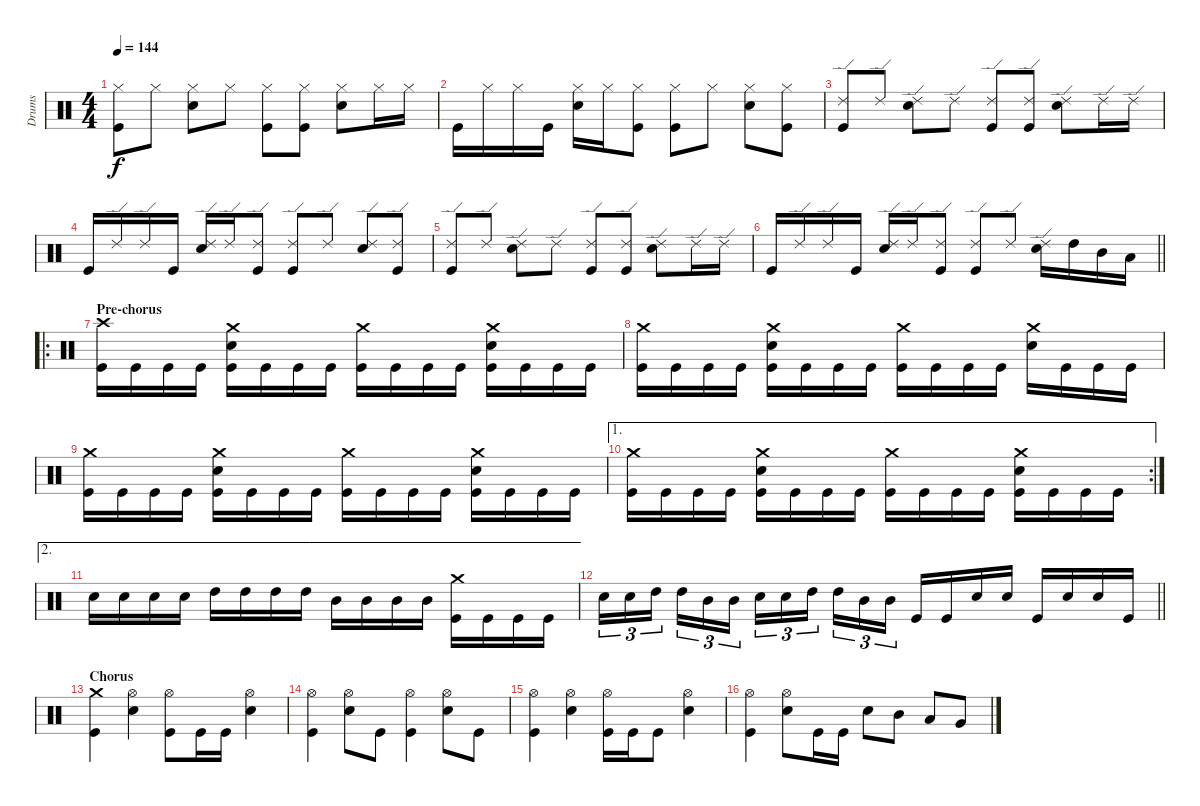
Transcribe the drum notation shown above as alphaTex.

\track ("Drums" "Drums") {instrument percussion}
\staff {score}
\articulation defaults
\ts (4 4)
\tempo 144
\clef neutral
\ks c
("Hi-Hat (closed)" "Kick (hit)").8{dy f} "Hi-Hat (closed)".8 ("Hi-Hat (closed)" "Snare (hit) 2").8 "Hi-Hat (closed)".8 ("Hi-Hat (closed)" "Kick (hit)").8 ("Hi-Hat (closed)" "Kick (hit)").8 ("Hi-Hat (closed)" "Snare (hit) 2").8 "Hi-Hat (closed)".16 "Hi-Hat (closed)".16 |
"Kick (hit)".16 "Hi-Hat (closed)".16 "Hi-Hat (closed)".16 "Kick (hit)".16 ("Hi-Hat (closed)" "Snare (hit) 2").16 "Hi-Hat (closed)".16 ("Hi-Hat (closed)" "Kick (hit)").8 ("Hi-Hat (closed)" "Kick (hit)").8 "Hi-Hat (closed)".8 ("Hi-Hat (closed)" "Snare (hit) 2").8 ("Hi-Hat (closed)" "Kick (hit)").8 |
("Ride (edge) 2" "Kick (hit)").8 "Ride (edge) 2".8 ("Ride (edge) 2" "Snare (hit) 2").8 "Ride (edge) 2".8 ("Ride (edge) 2" "Kick (hit)").8 ("Ride (edge) 2" "Kick (hit)").8 ("Ride (edge) 2" "Snare (hit) 2").8 "Ride (edge) 2".16 "Ride (edge) 2".16 |
"Kick (hit)".16 "Ride (edge) 2".16 "Ride (edge) 2".16 "Kick (hit)".16 ("Ride (edge) 2" "Snare (hit) 2").16 "Ride (edge) 2".16 ("Ride (edge) 2" "Kick (hit)").8 ("Ride (edge) 2" "Kick (hit)").8 "Ride (edge) 2".8 ("Ride (edge) 2" "Snare (hit) 2").8 ("Ride (edge) 2" "Kick (hit)").8 |
("Ride (edge) 2" "Kick (hit)").8 "Ride (edge) 2".8 ("Ride (edge) 2" "Snare (hit) 2").8 "Ride (edge) 2".8 ("Ride (edge) 2" "Kick (hit)").8 ("Ride (edge) 2" "Kick (hit)").8 ("Ride (edge) 2" "Snare (hit) 2").8 "Ride (edge) 2".16 "Ride (edge) 2".16 |
\barLineRight lightlight "Kick (hit)".16 "Ride (edge) 2".16 "Ride (edge) 2".16 "Kick (hit)".16
("Ride (edge) 2" "Snare (hit) 2").16 "Ride (edge) 2".16 ("Ride (edge) 2" "Kick (hit)").8 ("Ride (edge) 2" "Kick (hit)").8 "Ride (edge) 2".8 ("Ride (edge) 2" "Snare (hit) 2").16 "High Tom (hit)".16 "Mid Tom (hit)".16 "Low Tom (hit)".16 |
\ro
\section ("" "Pre-chorus")
("Crash high (hit)" "Kick (hit)").16 "Kick (hit)".16 "Kick (hit)".16 "Kick (hit)".16 ("Crash medium (hit)" "Snare (hit) 2" "Kick (hit)").16 "Kick (hit)".16 "Kick (hit)".16 "Kick (hit)".16 ("Crash medium (hit)" "Kick (hit)").16 "Kick (hit)".16 "Kick (hit)".16 "Kick (hit)".16 ("Crash medium (hit)" "Snare (hit) 2" "Kick (hit)").16 "Kick (hit)".16 "Kick (hit)".16 "Kick (hit)".16 |
("Crash medium (hit)" "Kick (hit)").16 "Kick (hit)".16 "Kick (hit)".16 "Kick (hit)".16 ("Crash medium (hit)" "Snare (hit) 2" "Kick (hit)").16 "Kick (hit)".16 "Kick (hit)".16 "Kick (hit)".16 ("Crash medium (hit)" "Kick (hit)").16 "Kick (hit)".16 "Kick (hit)".16 "Kick (hit)".16 ("Crash medium (hit)" "Snare (hit) 2").16 "Kick (hit)".16 "Kick (hit)".16 "Kick (hit)".16 |
("Crash medium (hit)" "Kick (hit)").16 "Kick (hit)".16 "Kick (hit)".16 "Kick (hit)".16 ("Crash medium (hit)" "Snare (hit) 2" "Kick (hit)").16 "Kick (hit)".16 "Kick (hit)".16 "Kick (hit)".16 ("Crash medium (hit)" "Kick (hit)").16 "Kick (hit)".16 "Kick (hit)".16 "Kick (hit)".16 ("Crash medium (hit)" "Snare (hit) 2" "Kick (hit)").16 "Kick (hit)".16 "Kick (hit)".16 "Kick (hit)".16 |
\ae 1
\rc 2
("Crash medium (hit)" "Kick (hit)").16 "Kick (hit)".16 "Kick (hit)".16 "Kick (hit)".16 ("Crash medium (hit)" "Snare (hit) 2" "Kick (hit)").16 "Kick (hit)".16 "Kick (hit)".16 "Kick (hit)".16 ("Crash medium (hit)" "Kick (hit)").16 "Kick (hit)".16 "Kick (hit)".16 "Kick (hit)".16 ("Crash medium (hit)" "Snare (hit) 2" "Kick (hit)").16 "Kick (hit)".16 "Kick (hit)".16 "Kick (hit)".16 |
\ae 2 "Snare (hit) 2".16 "Snare (hit) 2".16 "Snare (hit) 2".16 "Snare (hit) 2".16 "High Tom (hit)".16 "High Tom (hit)".16 "High Tom (hit)".16 "High Tom (hit)".16 "Mid Tom (hit)".16 "Mid Tom (hit)".16 "Mid Tom (hit)".16 "Mid Tom (hit)".16
("Crash medium (hit)" "Kick (hit)").16 "Kick (hit)".16 "Kick (hit)".16 "Kick (hit)".16 |
\barLineRight lightlight "Snare (hit) 2".16{tu (3 2)} "Snare (hit) 2".16{tu (3 2)} "High Tom (hit)".16{tu (3 2) beam splitsecondary} "High Tom (hit)".16{tu (3 2)} "Mid Tom (hit)".16{tu (3 2)} "Mid Tom (hit)".16{tu (3 2)} "Snare (hit) 2".16{tu (3 2)} "Snare (hit) 2".16{tu (3 2)} "High Tom (hit)".16{tu (3 2) beam splitsecondary} "High Tom (hit)".16{tu (3 2)} "Mid Tom (hit)".16{tu (3 2)} "Mid Tom (hit)".16{tu (3 2)} "Kick (hit)".16 "Kick (hit)".16 "Snare (hit) 2".16 "Snare (hit) 2".16 "Kick (hit)".16 "Snare (hit) 2".16 "Snare (hit) 2".16 "Kick (hit)".16
|
\section ("" "Chorus")
("Crash medium (hit)" "Kick (hit)").4 ("Hi-Hat (open)" "Snare (hit) 2").4 ("Hi-Hat (open)" "Kick (hit)").8 "Kick (hit)".16 "Kick (hit)".16 ("Hi-Hat (open)" "Snare (hit) 2").4 |
("Hi-Hat (open)" "Kick (hit)").4 ("Hi-Hat (open)" "Snare (hit) 2").8 "Kick (hit)".8 ("Hi-Hat (open)" "Kick (hit)").4 ("Hi-Hat (open)" "Snare (hit) 2").8 "Kick (hit)".8 |
("Hi-Hat (open)" "Kick (hit)").4 ("Hi-Hat (open)" "Snare (hit) 2").4 ("Hi-Hat (open)" "Kick (hit)").16 "Kick (hit)".16 "Kick (hit)".8 ("Hi-Hat (open)" "Snare (hit) 2").4 |
("Hi-Hat (open)" "Kick (hit)").4 ("Hi-Hat (open)" "Snare (hit) 2").8 "Kick (hit)".16 "Kick (hit)".16 "Snare (hit) 2".8 "Mid Tom (hit)".8 "Low Tom (hit)".8 "Very Low Tom (hit)".8
